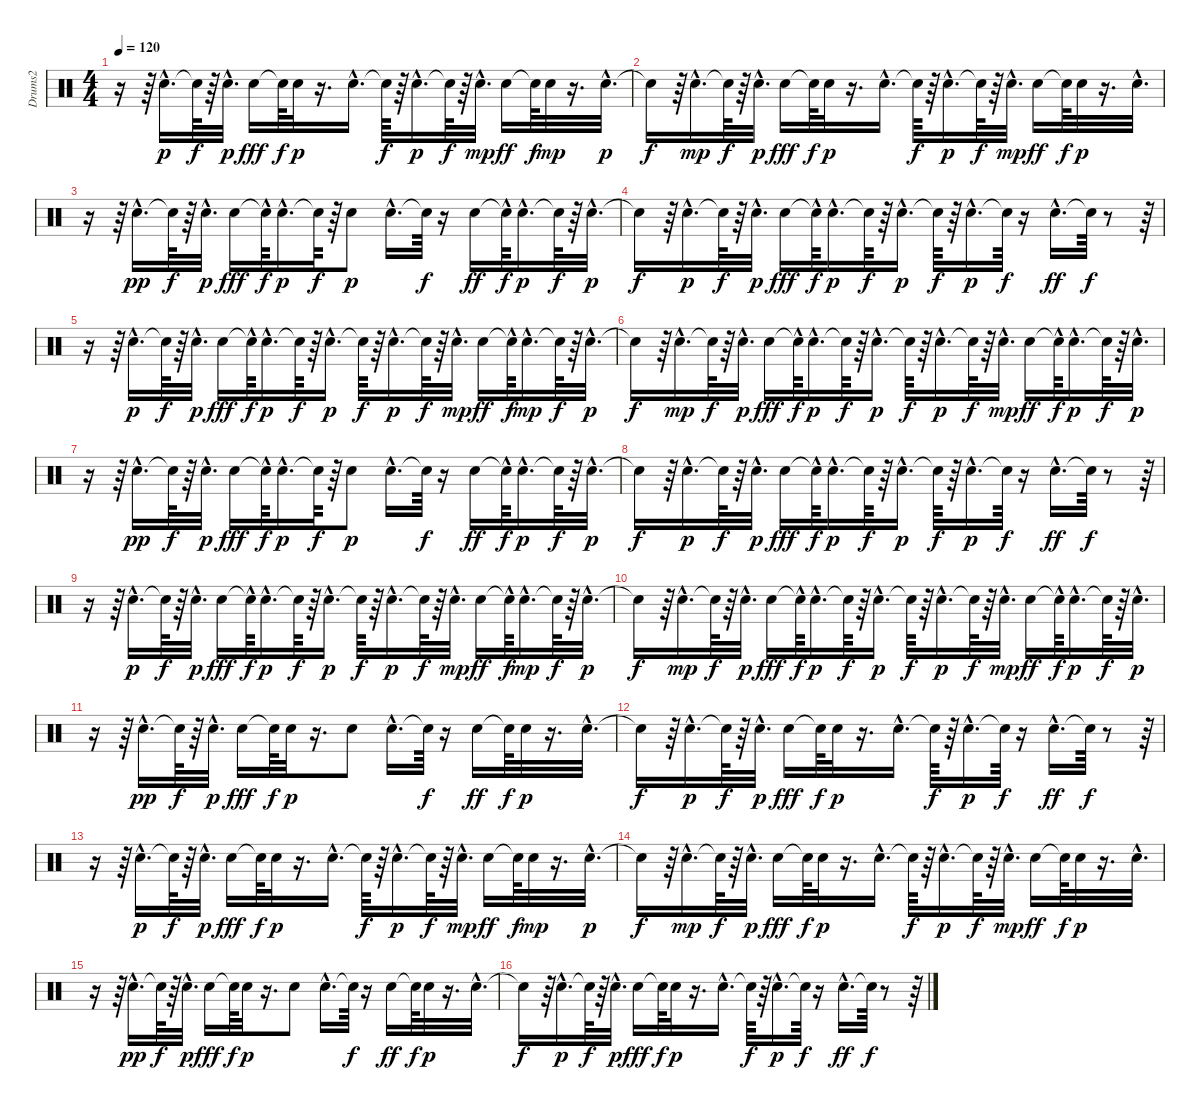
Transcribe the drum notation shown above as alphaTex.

\track ("Drums2" "Drums2") {instrument percussion}
\staff {score}
\articulation defaults
\ts (4 4)
\tempo 120
\clef neutral
\ks c
r.16{dy f} r.64 "Electric Snare (hit)"{hac}.16{d dy p} "Snare (hit)"{t}.64{dy f} r.64 "Electric Snare (hit)"{hac}.32{d dy p} "Electric Snare (hit)".16{dy fff} "Snare (hit)"{t}.64{dy f} "Electric Snare (hit)".32{dy p} r.16{d} "Electric Snare (hit)"{hac}.16{d} "Snare (hit)"{t}.64{dy f} r.64 "Electric Snare (hit)"{hac}.16{d dy p} "Snare (hit)"{t}.64{dy f} r.64 "Electric Snare (hit)"{hac}.32{d dy mp} "Electric Snare (hit)".16{dy ff} "Snare (hit)"{t}.64{dy f} "Electric Snare (hit)".32{dy mp} r.16{d} "Electric Snare (hit)"{hac}.32{d dy p} |
"Snare (hit)"{t}.16{dy f} r.64 "Electric Snare (hit)"{hac}.16{d dy mp} "Snare (hit)"{t}.64{dy f} r.64 "Electric Snare (hit)"{hac}.32{d dy p} "Electric Snare (hit)".16{dy fff} "Snare (hit)"{t}.64{dy f} "Electric Snare (hit)".32{dy p} r.16{d} "Electric Snare (hit)"{hac}.16{d} "Snare (hit)"{t}.64{dy f} r.64 "Electric Snare (hit)"{hac}.16{d dy p} "Snare (hit)"{t}.64{dy f} r.64 "Electric Snare (hit)"{hac}.32{d dy mp} "Electric Snare (hit)".16{dy ff} "Snare (hit)"{t}.64{dy f} "Electric Snare (hit)".32{dy p} r.16{d} "Electric Snare (hit)"{hac}.32{d} |
r.16 r.64 "Electric Snare (hit)"{hac}.16{d dy pp} "Snare (hit)"{t}.64{dy f} r.64 "Electric Snare (hit)"{hac}.32{d dy p} "Snare (hit) 2".16{dy fff} "Snare (hit)"{hac t}.64{dy f} "Electric Snare (hit)"{hac}.16{d dy p} "Snare (hit)"{t}.64{dy f} r.64 "Electric Snare (hit)".8{dy p} "Electric Snare (hit)"{hac}.16{d} "Snare (hit)"{t}.64{dy f} r.16 "Snare (hit) 2".16{dy ff} "Snare (hit)"{hac t}.64{dy f} "Electric Snare (hit)"{hac}.16{d dy p} "Snare (hit)"{t}.64{dy f} r.64 "Electric Snare (hit)"{hac}.32{d dy p} |
"Snare (hit)"{t}.16{dy f} r.64 "Electric Snare (hit)"{hac}.16{d dy p} "Snare (hit)"{t}.64{dy f} r.64 "Electric Snare (hit)"{hac}.32{d dy p} "Snare (hit) 2".16{dy fff} "Snare (hit)"{hac t}.64{dy f} "Electric Snare (hit)"{hac}.16{d dy p} "Snare (hit)"{t}.64{dy f} r.64 "Electric Snare (hit)"{hac}.16{d dy p} "Snare (hit)"{t}.64{dy f} r.64 "Electric Snare (hit)"{hac}.16{d dy p} "Snare (hit)"{t}.64{dy f} r.16 "Snare (hit) 2"{hac}.16{d dy ff} "Snare (hit)"{t}.64{dy f} r.8 r.64 |
r.16 r.64 "Electric Snare (hit)"{hac}.16{d dy p} "Snare (hit)"{t}.64{dy f} r.64 "Electric Snare (hit)"{hac}.32{d dy p} "Snare (hit) 2".16{dy fff} "Snare (hit)"{hac t}.64{dy f} "Electric Snare (hit)"{hac}.16{d dy p} "Snare (hit)"{t}.64{dy f} r.64 "Electric Snare (hit)"{hac}.16{d dy p} "Snare (hit)"{t}.64{dy f} r.64 "Electric Snare (hit)"{hac}.16{d dy p} "Snare (hit)"{t}.64{dy f} r.64 "Electric Snare (hit)"{hac}.32{d dy mp} "Snare (hit) 2".16{dy ff} "Snare (hit)"{hac t}.64{dy f} "Electric Snare (hit)"{hac}.16{d dy mp} "Snare (hit)"{t}.64{dy f} r.64 "Electric Snare (hit)"{hac}.32{d dy p} |
"Snare (hit)"{t}.16{dy f} r.64 "Electric Snare (hit)"{hac}.16{d dy mp} "Snare (hit)"{t}.64{dy f} r.64 "Electric Snare (hit)"{hac}.32{d dy p} "Snare (hit) 2".16{dy fff} "Snare (hit)"{hac t}.64{dy f} "Electric Snare (hit)"{hac}.16{d dy p} "Snare (hit)"{t}.64{dy f} r.64 "Electric Snare (hit)"{hac}.16{d dy p} "Snare (hit)"{t}.64{dy f} r.64 "Electric Snare (hit)"{hac}.16{d dy p} "Snare (hit)"{t}.64{dy f} r.64 "Electric Snare (hit)"{hac}.32{d dy mp} "Snare (hit) 2".16{dy ff} "Snare (hit)"{hac t}.64{dy f} "Electric Snare (hit)"{hac}.16{d dy p} "Snare (hit)"{t}.64{dy f} r.64 "Electric Snare (hit)"{hac}.32{d dy p} |
r.16 r.64 "Electric Snare (hit)"{hac}.16{d dy pp} "Snare (hit)"{t}.64{dy f} r.64 "Electric Snare (hit)"{hac}.32{d dy p} "Snare (hit) 2".16{dy fff} "Snare (hit)"{hac t}.64{dy f} "Electric Snare (hit)"{hac}.16{d dy p} "Snare (hit)"{t}.64{dy f} r.64 "Electric Snare (hit)".8{dy p} "Electric Snare (hit)"{hac}.16{d} "Snare (hit)"{t}.64{dy f} r.16 "Snare (hit) 2".16{dy ff} "Snare (hit)"{hac t}.64{dy f} "Electric Snare (hit)"{hac}.16{d dy p} "Snare (hit)"{t}.64{dy f} r.64 "Electric Snare (hit)"{hac}.32{d dy p} |
"Snare (hit)"{t}.16{dy f} r.64 "Electric Snare (hit)"{hac}.16{d dy p} "Snare (hit)"{t}.64{dy f} r.64 "Electric Snare (hit)"{hac}.32{d dy p} "Snare (hit) 2".16{dy fff} "Snare (hit)"{hac t}.64{dy f} "Electric Snare (hit)"{hac}.16{d dy p} "Snare (hit)"{t}.64{dy f} r.64 "Electric Snare (hit)"{hac}.16{d dy p} "Snare (hit)"{t}.64{dy f} r.64 "Electric Snare (hit)"{hac}.16{d dy p} "Snare (hit)"{t}.64{dy f} r.16 "Snare (hit) 2"{hac}.16{d dy ff} "Snare (hit)"{t}.64{dy f} r.8 r.64 |
r.16 r.64 "Electric Snare (hit)"{hac}.16{d dy p} "Snare (hit)"{t}.64{dy f} r.64 "Electric Snare (hit)"{hac}.32{d dy p} "Snare (hit) 2".16{dy fff} "Snare (hit)"{hac t}.64{dy f} "Electric Snare (hit)"{hac}.16{d dy p} "Snare (hit)"{t}.64{dy f} r.64 "Electric Snare (hit)"{hac}.16{d dy p} "Snare (hit)"{t}.64{dy f} r.64 "Electric Snare (hit)"{hac}.16{d dy p} "Snare (hit)"{t}.64{dy f} r.64 "Electric Snare (hit)"{hac}.32{d dy mp} "Snare (hit) 2".16{dy ff} "Snare (hit)"{hac t}.64{dy f} "Electric Snare (hit)"{hac}.16{d dy mp} "Snare (hit)"{t}.64{dy f} r.64 "Electric Snare (hit)"{hac}.32{d dy p} |
"Snare (hit)"{t}.16{dy f} r.64 "Electric Snare (hit)"{hac}.16{d dy mp} "Snare (hit)"{t}.64{dy f} r.64 "Electric Snare (hit)"{hac}.32{d dy p} "Snare (hit) 2".16{dy fff} "Snare (hit)"{hac t}.64{dy f} "Electric Snare (hit)"{hac}.16{d dy p} "Snare (hit)"{t}.64{dy f} r.64 "Electric Snare (hit)"{hac}.16{d dy p} "Snare (hit)"{t}.64{dy f} r.64 "Electric Snare (hit)"{hac}.16{d dy p} "Snare (hit)"{t}.64{dy f} r.64 "Electric Snare (hit)"{hac}.32{d dy mp} "Snare (hit) 2".16{dy ff} "Snare (hit)"{hac t}.64{dy f} "Electric Snare (hit)"{hac}.16{d dy p} "Snare (hit)"{t}.64{dy f} r.64 "Electric Snare (hit)"{hac}.32{d dy p} |
r.16 r.64 "Electric Snare (hit)"{hac}.16{d dy pp} "Snare (hit)"{t}.64{dy f} r.64 "Electric Snare (hit)"{hac}.32{d dy p} "Electric Snare (hit)".16{dy fff} "Snare (hit)"{t}.64{dy f} "Electric Snare (hit)".32{dy p} r.16{d} "Electric Snare (hit)".8 "Electric Snare (hit)"{hac}.16{d} "Snare (hit)"{t}.64{dy f} r.16 "Electric Snare (hit)".16{dy ff} "Snare (hit)"{t}.64{dy f} "Electric Snare (hit)".32{dy p} r.16{d} "Electric Snare (hit)"{hac}.32{d} |
"Snare (hit)"{t}.16{dy f} r.64 "Electric Snare (hit)"{hac}.16{d dy p} "Snare (hit)"{t}.64{dy f} r.64 "Electric Snare (hit)"{hac}.32{d dy p} "Electric Snare (hit)".16{dy fff} "Snare (hit)"{t}.64{dy f} "Electric Snare (hit)".32{dy p} r.16{d} "Electric Snare (hit)"{hac}.16{d} "Snare (hit)"{t}.64{dy f} r.64 "Electric Snare (hit)"{hac}.16{d dy p} "Snare (hit)"{t}.64{dy f} r.16 "Electric Snare (hit)"{hac}.16{d dy ff} "Snare (hit)"{t}.64{dy f} r.8 r.64 |
r.16 r.64 "Electric Snare (hit)"{hac}.16{d dy p} "Snare (hit)"{t}.64{dy f} r.64 "Electric Snare (hit)"{hac}.32{d dy p} "Electric Snare (hit)".16{dy fff} "Snare (hit)"{t}.64{dy f} "Electric Snare (hit)".32{dy p} r.16{d} "Electric Snare (hit)"{hac}.16{d} "Snare (hit)"{t}.64{dy f} r.64 "Electric Snare (hit)"{hac}.16{d dy p} "Snare (hit)"{t}.64{dy f} r.64 "Electric Snare (hit)"{hac}.32{d dy mp} "Electric Snare (hit)".16{dy ff} "Snare (hit)"{t}.64{dy f} "Electric Snare (hit)".32{dy mp} r.16{d} "Electric Snare (hit)"{hac}.32{d dy p} |
"Snare (hit)"{t}.16{dy f} r.64 "Electric Snare (hit)"{hac}.16{d dy mp} "Snare (hit)"{t}.64{dy f} r.64 "Electric Snare (hit)"{hac}.32{d dy p} "Electric Snare (hit)".16{dy fff} "Snare (hit)"{t}.64{dy f} "Electric Snare (hit)".32{dy p} r.16{d} "Electric Snare (hit)"{hac}.16{d} "Snare (hit)"{t}.64{dy f} r.64 "Electric Snare (hit)"{hac}.16{d dy p} "Snare (hit)"{t}.64{dy f} r.64 "Electric Snare (hit)"{hac}.32{d dy mp} "Electric Snare (hit)".16{dy ff} "Snare (hit)"{t}.64{dy f} "Electric Snare (hit)".32{dy p} r.16{d} "Electric Snare (hit)"{hac}.32{d} |
r.16 r.64 "Electric Snare (hit)"{hac}.16{d dy pp} "Snare (hit)"{t}.64{dy f} r.64 "Electric Snare (hit)"{hac}.32{d dy p} "Electric Snare (hit)".16{dy fff} "Snare (hit)"{t}.64{dy f} "Electric Snare (hit)".32{dy p} r.16{d} "Electric Snare (hit)".8 "Electric Snare (hit)"{hac}.16{d} "Snare (hit)"{t}.64{dy f} r.16 "Electric Snare (hit)".16{dy ff} "Snare (hit)"{t}.64{dy f} "Electric Snare (hit)".32{dy p} r.16{d} "Electric Snare (hit)"{hac}.32{d} |
"Snare (hit)"{t}.16{dy f} r.64 "Electric Snare (hit)"{hac}.16{d dy p} "Snare (hit)"{t}.64{dy f} r.64 "Electric Snare (hit)"{hac}.32{d dy p} "Electric Snare (hit)".16{dy fff} "Snare (hit)"{t}.64{dy f} "Electric Snare (hit)".32{dy p} r.16{d} "Electric Snare (hit)"{hac}.16{d} "Snare (hit)"{t}.64{dy f} r.64 "Electric Snare (hit)"{hac}.16{d dy p} "Snare (hit)"{t}.64{dy f} r.16 "Electric Snare (hit)"{hac}.16{d dy ff} "Snare (hit)"{t}.64{dy f} r.8 r.64
